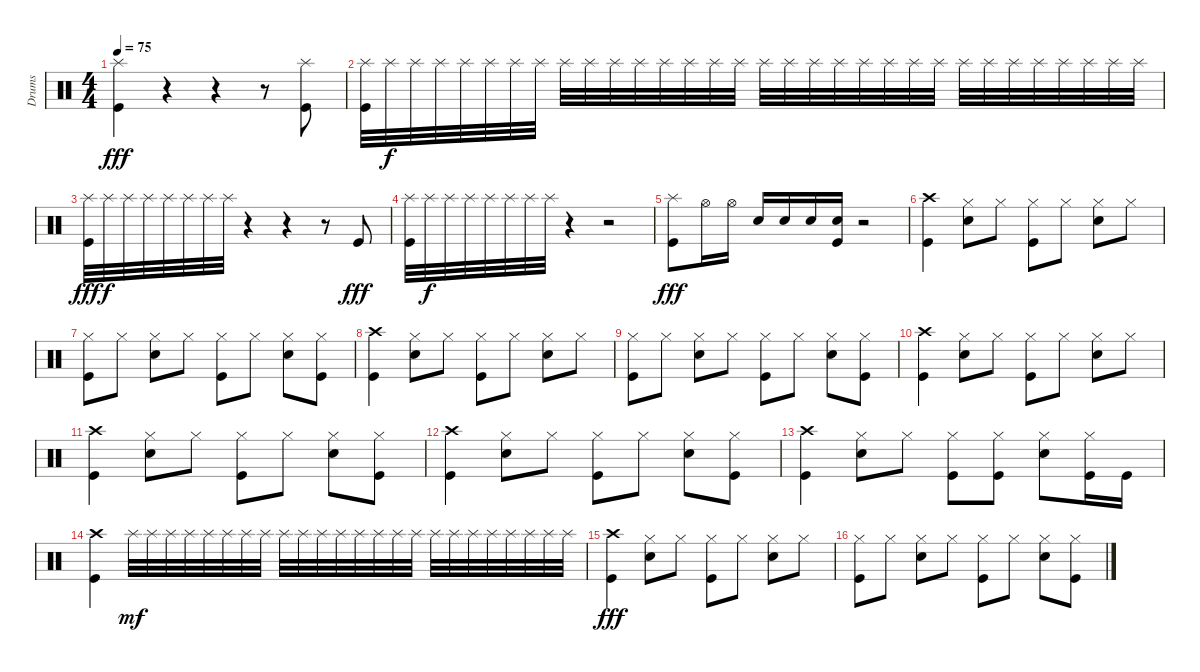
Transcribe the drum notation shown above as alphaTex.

\track ("Drums" "Drums") {instrument percussion}
\staff {score}
\articulation defaults
\ts (4 4)
\tempo 75
\clef neutral
\ks c
("Splash (hit)" "Kick (hit)").4{dy fff} r.4 r.4 r.8 ("Splash (hit)" "Kick (hit)").8 |
("Splash (hit)" "Kick (hit)").32 "Splash (hit)".32{dy f} "Splash (hit)".32 "Splash (hit)".32 "Splash (hit)".32 "Splash (hit)".32 "Splash (hit)".32 "Splash (hit)".32 "Splash (hit)".32 "Splash (hit)".32 "Splash (hit)".32 "Splash (hit)".32 "Splash (hit)".32 "Splash (hit)".32 "Splash (hit)".32 "Splash (hit)".32 "Splash (hit)".32 "Splash (hit)".32 "Splash (hit)".32 "Splash (hit)".32 "Splash (hit)".32 "Splash (hit)".32 "Splash (hit)".32 "Splash (hit)".32 "Splash (hit)".32 "Splash (hit)".32 "Splash (hit)".32 "Splash (hit)".32 "Splash (hit)".32 "Splash (hit)".32 "Splash (hit)".32 "Splash (hit)".32 |
("Splash (hit)" "Kick (hit)").32{dy fff} "Splash (hit)".32{dy f} "Splash (hit)".32 "Splash (hit)".32 "Splash (hit)".32 "Splash (hit)".32 "Splash (hit)".32 "Splash (hit)".32 r.4 r.4 r.8 "Kick (hit)".8{dy fff} |
("Splash (hit)" "Kick (hit)").32 "Splash (hit)".32{dy f} "Splash (hit)".32 "Splash (hit)".32 "Splash (hit)".32 "Splash (hit)".32 "Splash (hit)".32 "Splash (hit)".32 r.4 r.2 |
("Splash (hit)" "Kick (hit)").8{dy fff} "Hi-Hat (open)".16 "Hi-Hat (open)".16 "Snare (hit) 2".16 "Snare (hit) 2".16 "Snare (hit) 2".16 ("Snare (hit) 2" "Kick (hit)").16 r.2 |
("Crash high (hit)" "Kick (hit)").4 ("Hi-Hat (closed)" "Snare (hit) 2").8 "Hi-Hat (closed)".8 ("Hi-Hat (closed)" "Kick (hit)").8 "Hi-Hat (closed)".8 ("Hi-Hat (closed)" "Snare (hit) 2").8 "Hi-Hat (closed)".8 |
("Hi-Hat (closed)" "Kick (hit)").8 "Hi-Hat (closed)".8 ("Hi-Hat (closed)" "Snare (hit) 2").8 "Hi-Hat (closed)".8 ("Hi-Hat (closed)" "Kick (hit)").8 "Hi-Hat (closed)".8 ("Hi-Hat (closed)" "Snare (hit) 2").8 ("Hi-Hat (closed)" "Kick (hit)").8 |
("Crash high (hit)" "Kick (hit)").4 ("Hi-Hat (closed)" "Snare (hit) 2").8 "Hi-Hat (closed)".8 ("Hi-Hat (closed)" "Kick (hit)").8 "Hi-Hat (closed)".8 ("Hi-Hat (closed)" "Snare (hit) 2").8 "Hi-Hat (closed)".8 |
("Hi-Hat (closed)" "Kick (hit)").8 "Hi-Hat (closed)".8 ("Hi-Hat (closed)" "Snare (hit) 2").8 "Hi-Hat (closed)".8 ("Hi-Hat (closed)" "Kick (hit)").8 "Hi-Hat (closed)".8 ("Hi-Hat (closed)" "Snare (hit) 2").8 ("Hi-Hat (closed)" "Kick (hit)").8 |
("Crash high (hit)" "Kick (hit)").4 ("Hi-Hat (closed)" "Snare (hit) 2").8 "Hi-Hat (closed)".8 ("Hi-Hat (closed)" "Kick (hit)").8 "Hi-Hat (closed)".8 ("Hi-Hat (closed)" "Snare (hit) 2").8 "Hi-Hat (closed)".8 |
("Crash high (hit)" "Kick (hit)").4 ("Hi-Hat (closed)" "Snare (hit) 2").8 "Hi-Hat (closed)".8 ("Hi-Hat (closed)" "Kick (hit)").8 "Hi-Hat (closed)".8 ("Hi-Hat (closed)" "Snare (hit) 2").8 ("Hi-Hat (closed)" "Kick (hit)").8 |
("Crash high (hit)" "Kick (hit)").4 ("Hi-Hat (closed)" "Snare (hit) 2").8 "Hi-Hat (closed)".8 ("Hi-Hat (closed)" "Kick (hit)").8 "Hi-Hat (closed)".8 ("Hi-Hat (closed)" "Snare (hit) 2").8 ("Hi-Hat (closed)" "Kick (hit)").8 |
("Crash high (hit)" "Kick (hit)").4 ("Hi-Hat (closed)" "Snare (hit) 2").8 "Hi-Hat (closed)".8 ("Hi-Hat (closed)" "Kick (hit)").8 ("Hi-Hat (closed)" "Kick (hit)").8 ("Hi-Hat (closed)" "Snare (hit) 2").8 ("Hi-Hat (closed)" "Kick (hit)").16 "Kick (hit)".16 |
("Crash high (hit)" "Kick (hit)").4 "Splash (hit)".32{dy mf} "Splash (hit)".32 "Splash (hit)".32 "Splash (hit)".32 "Splash (hit)".32 "Splash (hit)".32 "Splash (hit)".32 "Splash (hit)".32 "Splash (hit)".32 "Splash (hit)".32 "Splash (hit)".32 "Splash (hit)".32 "Splash (hit)".32 "Splash (hit)".32 "Splash (hit)".32 "Splash (hit)".32 "Splash (hit)".32 "Splash (hit)".32 "Splash (hit)".32 "Splash (hit)".32 "Splash (hit)".32 "Splash (hit)".32 "Splash (hit)".32 "Splash (hit)".32 |
("Crash high (hit)" "Kick (hit)").4{dy fff} ("Hi-Hat (closed)" "Snare (hit) 2").8 "Hi-Hat (closed)".8 ("Hi-Hat (closed)" "Kick (hit)").8 "Hi-Hat (closed)".8 ("Hi-Hat (closed)" "Snare (hit) 2").8 "Hi-Hat (closed)".8 |
("Hi-Hat (closed)" "Kick (hit)").8 "Hi-Hat (closed)".8 ("Hi-Hat (closed)" "Snare (hit) 2").8 "Hi-Hat (closed)".8 ("Hi-Hat (closed)" "Kick (hit)").8 "Hi-Hat (closed)".8 ("Hi-Hat (closed)" "Snare (hit) 2").8 ("Hi-Hat (closed)" "Kick (hit)").8
